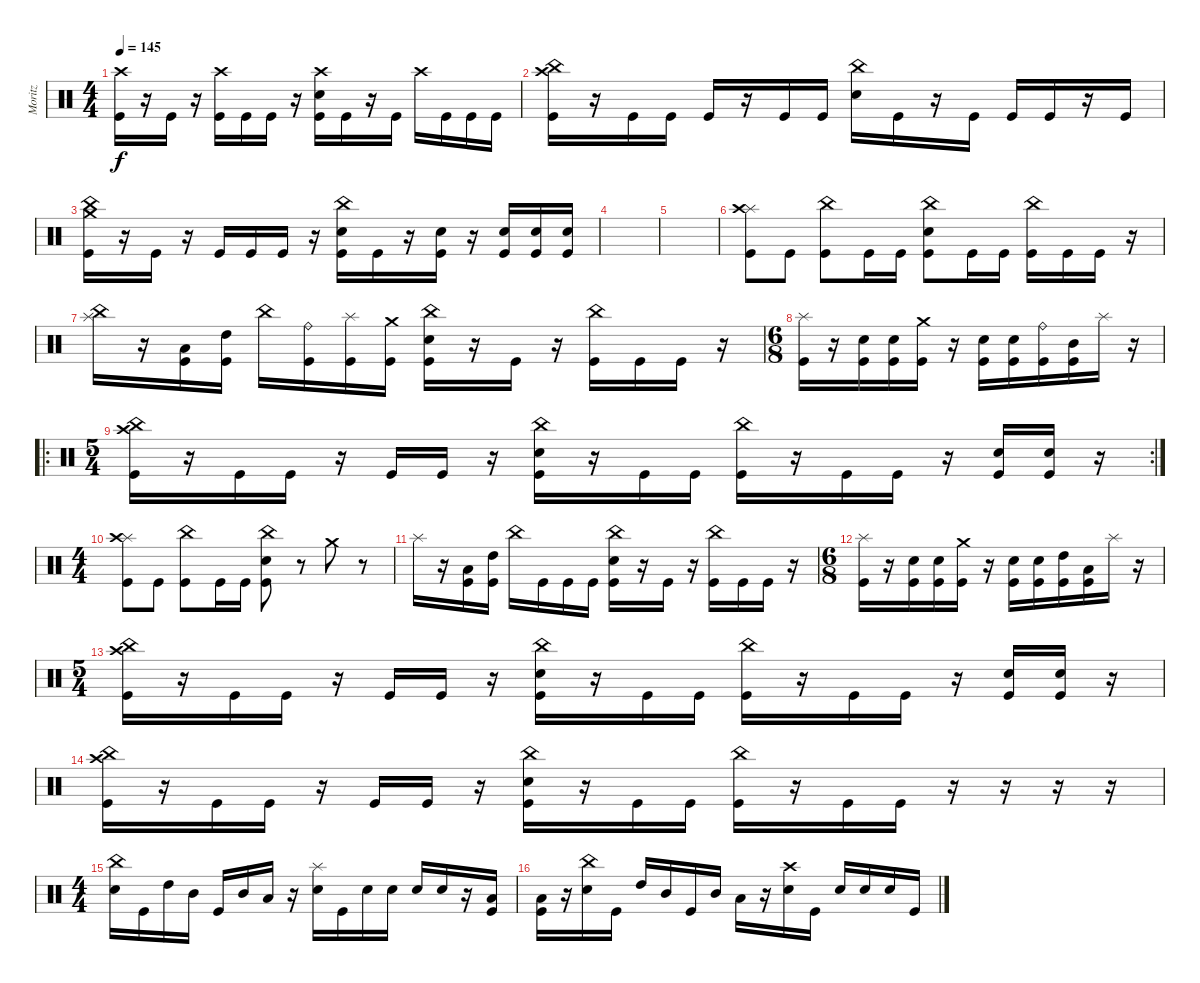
\track ("Moritz" "Moritz") {instrument percussion}
\staff {score}
\articulation defaults
\ts (4 4)
\tempo 145
\clef neutral
\ks c
("Crash high (hit)" "Kick (hit)").16{dy f} r.16 "Kick (hit)".16 r.16 ("Crash high (hit)" "Kick (hit)").16 "Kick (hit)".16 "Kick (hit)".16 r.16 ("Crash high (hit)" "Snare (hit) 2" "Kick (hit)").16 "Kick (hit)".16 r.16 "Kick (hit)".16 "Crash high (hit)".16 "Kick (hit)".16 "Kick (hit)".16 "Kick (hit)".16 |
("China (hit)" "Crash high (hit)" "Kick (hit)").16 r.16 "Kick (hit)".16 "Kick (hit)".16 "Kick (hit)".16 r.16 "Kick (hit)".16 "Kick (hit)".16 ("China (hit)" "Snare (hit) 2").16 "Kick (hit)".16 r.16 "Kick (hit)".16 "Kick (hit)".16 "Kick (hit)".16 r.16 "Kick (hit)".16 |
("Crash medium (hit)" "China (hit)" "Kick (hit)").16 r.16 "Kick (hit)".16 r.16 "Kick (hit)".16 "Kick (hit)".16 "Kick (hit)".16 r.16 ("China (hit)" "Snare (hit) 2" "Kick (hit)").16 "Kick (hit)".16 r.16 ("Snare (hit) 2" "Kick (hit)").16 r.16 ("Snare (hit) 2" "Kick (hit)").16 ("Snare (hit) 2" "Kick (hit)").16 ("Snare (hit) 2" "Kick (hit)").16 |
|
|
("Splash (hit)" "Crash high (hit)" "Kick (hit)").8 "Kick (hit)".8 ("China (hit)" "Kick (hit)").8 "Kick (hit)".16 "Kick (hit)".16 ("China (hit)" "Snare (hit) 2" "Kick (hit)").8 "Kick (hit)".16 "Kick (hit)".16 ("China (hit)" "Kick (hit)").16 "Kick (hit)".16 "Kick (hit)".16 r.16 |
("Splash (hit)" "China (hit)").16 r.16 ("Low Floor Tom (hit)" "Kick (hit)").16 ("High Tom (hit)" "Kick (hit)").16 "China (hit)".16 ("Ride (bell)" "Kick (hit)").16 ("Splash (hit)" "Kick (hit)").16 ("Crash medium (hit)" "Kick (hit)").16 ("China (hit)" "Snare (hit) 2" "Kick (hit)").16 r.16 "Kick (hit)".16 r.16 ("China (hit)" "Kick (hit)").16 "Kick (hit)".16 "Kick (hit)".16 r.16 |
\ts (6 8)
("Splash (hit)" "Kick (hit)").16 r.16 ("Snare (hit) 2" "Kick (hit)").16 ("Snare (hit) 2" "Kick (hit)").16 ("Crash medium (hit)" "Kick (hit)").16 r.16 ("Snare (hit) 2" "Kick (hit)").16 ("Snare (hit) 2" "Kick (hit)").16 ("Ride (bell)" "Kick (hit)").16 ("Mid Tom (hit)" "Kick (hit)").16 "Splash (hit)".16 r.16 |
\ro
\rc 2
\ts (5 4)
("Crash high (hit)" "China (hit)" "Kick (hit)").16 r.16 "Kick (hit)".16 "Kick (hit)".16 r.16 "Kick (hit)".16 "Kick (hit)".16 r.16 ("China (hit)" "Snare (hit) 2" "Kick (hit)").16 r.16 "Kick (hit)".16 "Kick (hit)".16 ("China (hit)" "Kick (hit)").16 r.16 "Kick (hit)".16 "Kick (hit)".16 r.16 ("Snare (hit) 2" "Kick (hit)").16 ("Snare (hit) 2" "Kick (hit)").16 r.16 |
\ts (4 4)
("Splash (hit)" "Crash high (hit)" "Kick (hit)").8 "Kick (hit)".8 ("China (hit)" "Kick (hit)").8 "Kick (hit)".16 "Kick (hit)".16 ("China (hit)" "Snare (hit) 2" "Kick (hit)").8 r.8 "Crash medium (hit)".8 r.8 |
"Splash (hit)".16 r.16 ("Low Floor Tom (hit)" "Kick (hit)").16 ("High Tom (hit)" "Kick (hit)").16 "China (hit)".16 "Kick (hit)".16 "Kick (hit)".16 "Kick (hit)".16 ("China (hit)" "Snare (hit) 2" "Kick (hit)").16 r.16 "Kick (hit)".16 r.16 ("China (hit)" "Kick (hit)").16 "Kick (hit)".16 "Kick (hit)".16 r.16 |
\ts (6 8)
("Splash (hit)" "Kick (hit)").16 r.16 ("Snare (hit) 2" "Kick (hit)").16 ("Snare (hit) 2" "Kick (hit)").16 ("Crash medium (hit)" "Kick (hit)").16 r.16 ("Snare (hit) 2" "Kick (hit)").16 ("Snare (hit) 2" "Kick (hit)").16 ("High Tom (hit)" "Kick (hit)").16 ("Low Floor Tom (hit)" "Kick (hit)").16 "Splash (hit)".16 r.16 |
\ts (5 4)
("Crash high (hit)" "China (hit)" "Kick (hit)").16 r.16 "Kick (hit)".16 "Kick (hit)".16 r.16 "Kick (hit)".16 "Kick (hit)".16 r.16 ("China (hit)" "Snare (hit) 2" "Kick (hit)").16 r.16 "Kick (hit)".16 "Kick (hit)".16 ("China (hit)" "Kick (hit)").16 r.16 "Kick (hit)".16 "Kick (hit)".16 r.16 ("Snare (hit) 2" "Kick (hit)").16 ("Snare (hit) 2" "Kick (hit)").16 r.16 |
("Crash high (hit)" "China (hit)" "Kick (hit)").16 r.16 "Kick (hit)".16 "Kick (hit)".16 r.16 "Kick (hit)".16 "Kick (hit)".16 r.16 ("China (hit)" "Snare (hit) 2" "Kick (hit)").16 r.16 "Kick (hit)".16 "Kick (hit)".16 ("China (hit)" "Kick (hit)").16 r.16 "Kick (hit)".16 "Kick (hit)".16 r.16 r.16 r.16 r.16 |
\ts (4 4)
("China (hit)" "Snare (hit) 2").16 "Kick (hit)".16 "High Tom (hit)".16 "Mid Tom (hit)".16 "Kick (hit)".16 "Mid Tom (hit)".16 "Low Floor Tom (hit)".16 r.16 ("Splash (hit)" "Snare (hit) 2").16 "Kick (hit)".16 "Snare (hit) 2".16 "Snare (hit) 2".16 "Snare (hit) 2".16 "Snare (hit) 2".16 r.16 ("Low Floor Tom (hit)" "Kick (hit)").16 |
("Low Floor Tom (hit)" "Kick (hit)").16 r.16 ("China (hit)" "Snare (hit) 2").16 "Kick (hit)".16 "High Tom (hit)".16 "Mid Tom (hit)".16 "Kick (hit)".16 "Mid Tom (hit)".16 "Low Floor Tom (hit)".16 r.16 ("Crash high (hit)" "Snare (hit) 2").16 "Kick (hit)".16 "Snare (hit) 2".16 "Snare (hit) 2".16 "Snare (hit) 2".16 "Kick (hit)".16
